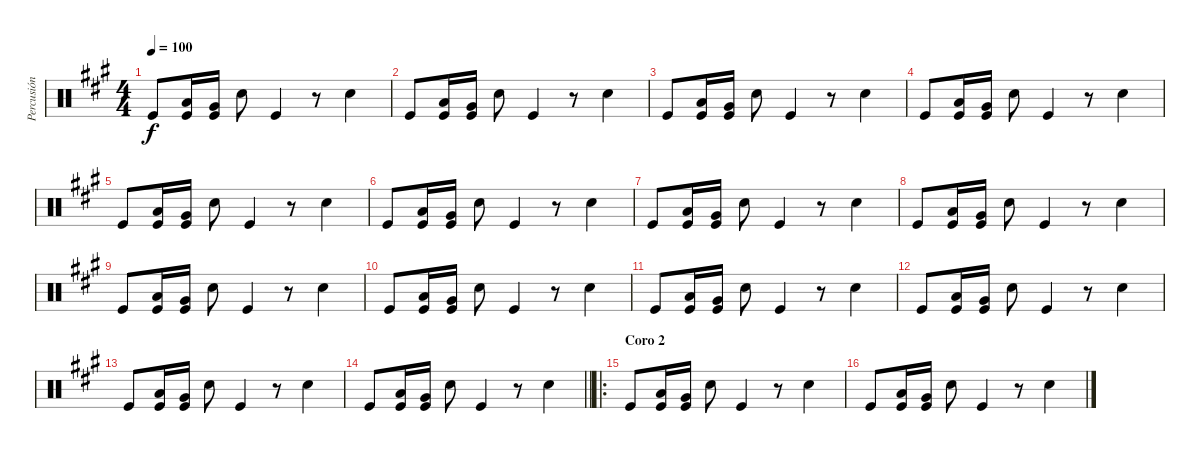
\track ("Percusión" "Percusión") {instrument percussion}
\staff {score}
\articulation defaults
\ts (4 4)
\tempo 100
\clef neutral
\ks f#minor "Kick (hit)".8{dy f}
("Low Tom (hit)" "Kick (hit)").16 ("Very Low Tom (hit)" "Kick (hit)").16 "Electric Snare (hit)".8 "Kick (hit)".4 r.8 "Electric Snare (hit)".4 |
"Kick (hit)".8 ("Low Tom (hit)" "Kick (hit)").16 ("Very Low Tom (hit)" "Kick (hit)").16 "Electric Snare (hit)".8 "Kick (hit)".4 r.8 "Electric Snare (hit)".4 |
"Kick (hit)".8 ("Low Tom (hit)" "Kick (hit)").16 ("Very Low Tom (hit)" "Kick (hit)").16 "Electric Snare (hit)".8 "Kick (hit)".4 r.8 "Electric Snare (hit)".4 |
"Kick (hit)".8 ("Low Tom (hit)" "Kick (hit)").16 ("Very Low Tom (hit)" "Kick (hit)").16 "Electric Snare (hit)".8 "Kick (hit)".4 r.8 "Electric Snare (hit)".4 |
"Kick (hit)".8 ("Low Tom (hit)" "Kick (hit)").16 ("Very Low Tom (hit)" "Kick (hit)").16 "Electric Snare (hit)".8 "Kick (hit)".4 r.8 "Electric Snare (hit)".4 |
"Kick (hit)".8 ("Low Tom (hit)" "Kick (hit)").16 ("Very Low Tom (hit)" "Kick (hit)").16 "Electric Snare (hit)".8 "Kick (hit)".4 r.8 "Electric Snare (hit)".4 |
"Kick (hit)".8 ("Low Tom (hit)" "Kick (hit)").16 ("Very Low Tom (hit)" "Kick (hit)").16 "Electric Snare (hit)".8 "Kick (hit)".4 r.8 "Electric Snare (hit)".4 |
"Kick (hit)".8 ("Low Tom (hit)" "Kick (hit)").16 ("Very Low Tom (hit)" "Kick (hit)").16 "Electric Snare (hit)".8 "Kick (hit)".4 r.8 "Electric Snare (hit)".4 |
"Kick (hit)".8 ("Low Tom (hit)" "Kick (hit)").16 ("Very Low Tom (hit)" "Kick (hit)").16 "Electric Snare (hit)".8 "Kick (hit)".4 r.8 "Electric Snare (hit)".4 |
"Kick (hit)".8 ("Low Tom (hit)" "Kick (hit)").16 ("Very Low Tom (hit)" "Kick (hit)").16 "Electric Snare (hit)".8 "Kick (hit)".4 r.8 "Electric Snare (hit)".4 |
"Kick (hit)".8 ("Low Tom (hit)" "Kick (hit)").16 ("Very Low Tom (hit)" "Kick (hit)").16 "Electric Snare (hit)".8 "Kick (hit)".4 r.8 "Electric Snare (hit)".4 |
"Kick (hit)".8 ("Low Tom (hit)" "Kick (hit)").16 ("Very Low Tom (hit)" "Kick (hit)").16 "Electric Snare (hit)".8 "Kick (hit)".4 r.8 "Electric Snare (hit)".4 |
"Kick (hit)".8 ("Low Tom (hit)" "Kick (hit)").16 ("Very Low Tom (hit)" "Kick (hit)").16 "Electric Snare (hit)".8 "Kick (hit)".4 r.8 "Electric Snare (hit)".4 |
\barLineRight lightlight "Kick (hit)".8
("Low Tom (hit)" "Kick (hit)").16 ("Very Low Tom (hit)" "Kick (hit)").16 "Electric Snare (hit)".8 "Kick (hit)".4 r.8 "Electric Snare (hit)".4 |
\ro
\section ("" "Coro 2")
"Kick (hit)".8 ("Low Tom (hit)" "Kick (hit)").16 ("Very Low Tom (hit)" "Kick (hit)").16 "Electric Snare (hit)".8 "Kick (hit)".4 r.8 "Electric Snare (hit)".4 |
"Kick (hit)".8 ("Low Tom (hit)" "Kick (hit)").16 ("Very Low Tom (hit)" "Kick (hit)").16 "Electric Snare (hit)".8 "Kick (hit)".4 r.8 "Electric Snare (hit)".4
